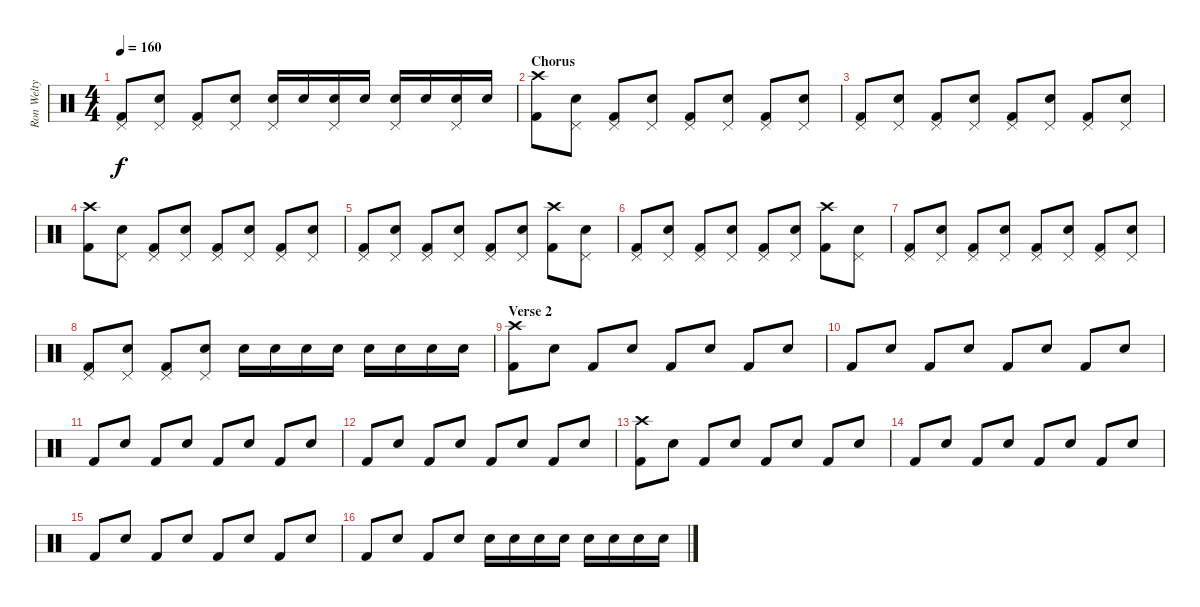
\track ("Ron Welty" "Ron Welty") {instrument percussion}
\staff {score}
\articulation defaults
\ts (4 4)
\tempo 160
\clef neutral
\ks c
("Pedal Hi-Hat (hit)" "Kick (hit) 2").8{dy f} ("Pedal Hi-Hat (hit)" "Snare (hit) 2").8 ("Pedal Hi-Hat (hit)" "Kick (hit) 2").8 ("Pedal Hi-Hat (hit)" "Snare (hit) 2").8 ("Pedal Hi-Hat (hit)" "Snare (hit) 2").16 "Snare (hit) 2".16 ("Pedal Hi-Hat (hit)" "Snare (hit) 2").16 "Snare (hit) 2".16 ("Pedal Hi-Hat (hit)" "Snare (hit) 2").16 "Snare (hit) 2".16 ("Pedal Hi-Hat (hit)" "Snare (hit) 2").16 "Snare (hit) 2".16 |
\section ("" "Chorus")
("Crash high (hit)" "Kick (hit) 2").8 ("Pedal Hi-Hat (hit)" "Snare (hit) 2").8 ("Pedal Hi-Hat (hit)" "Kick (hit) 2").8 ("Pedal Hi-Hat (hit)" "Snare (hit) 2").8 ("Pedal Hi-Hat (hit)" "Kick (hit) 2").8 ("Pedal Hi-Hat (hit)" "Snare (hit) 2").8 ("Pedal Hi-Hat (hit)" "Kick (hit) 2").8 ("Pedal Hi-Hat (hit)" "Snare (hit) 2").8 |
("Pedal Hi-Hat (hit)" "Kick (hit) 2").8 ("Pedal Hi-Hat (hit)" "Snare (hit) 2").8 ("Pedal Hi-Hat (hit)" "Kick (hit) 2").8 ("Pedal Hi-Hat (hit)" "Snare (hit) 2").8 ("Pedal Hi-Hat (hit)" "Kick (hit) 2").8 ("Pedal Hi-Hat (hit)" "Snare (hit) 2").8 ("Pedal Hi-Hat (hit)" "Kick (hit) 2").8 ("Pedal Hi-Hat (hit)" "Snare (hit) 2").8 |
("Crash high (hit)" "Kick (hit) 2").8 ("Pedal Hi-Hat (hit)" "Snare (hit) 2").8 ("Pedal Hi-Hat (hit)" "Kick (hit) 2").8 ("Pedal Hi-Hat (hit)" "Snare (hit) 2").8 ("Pedal Hi-Hat (hit)" "Kick (hit) 2").8 ("Pedal Hi-Hat (hit)" "Snare (hit) 2").8 ("Pedal Hi-Hat (hit)" "Kick (hit) 2").8 ("Pedal Hi-Hat (hit)" "Snare (hit) 2").8 |
("Pedal Hi-Hat (hit)" "Kick (hit) 2").8 ("Pedal Hi-Hat (hit)" "Snare (hit) 2").8 ("Pedal Hi-Hat (hit)" "Kick (hit) 2").8 ("Pedal Hi-Hat (hit)" "Snare (hit) 2").8 ("Pedal Hi-Hat (hit)" "Kick (hit) 2").8 ("Pedal Hi-Hat (hit)" "Snare (hit) 2").8 ("Crash high (hit)" "Kick (hit) 2").8 ("Pedal Hi-Hat (hit)" "Snare (hit) 2").8 |
("Pedal Hi-Hat (hit)" "Kick (hit) 2").8 ("Pedal Hi-Hat (hit)" "Snare (hit) 2").8 ("Pedal Hi-Hat (hit)" "Kick (hit) 2").8 ("Pedal Hi-Hat (hit)" "Snare (hit) 2").8 ("Pedal Hi-Hat (hit)" "Kick (hit) 2").8 ("Pedal Hi-Hat (hit)" "Snare (hit) 2").8 ("Crash high (hit)" "Kick (hit) 2").8 ("Pedal Hi-Hat (hit)" "Snare (hit) 2").8 |
("Pedal Hi-Hat (hit)" "Kick (hit) 2").8 ("Pedal Hi-Hat (hit)" "Snare (hit) 2").8 ("Pedal Hi-Hat (hit)" "Kick (hit) 2").8 ("Pedal Hi-Hat (hit)" "Snare (hit) 2").8 ("Pedal Hi-Hat (hit)" "Kick (hit) 2").8 ("Pedal Hi-Hat (hit)" "Snare (hit) 2").8 ("Pedal Hi-Hat (hit)" "Kick (hit) 2").8 ("Pedal Hi-Hat (hit)" "Snare (hit) 2").8 |
("Pedal Hi-Hat (hit)" "Kick (hit) 2").8 ("Pedal Hi-Hat (hit)" "Snare (hit) 2").8 ("Pedal Hi-Hat (hit)" "Kick (hit) 2").8 ("Pedal Hi-Hat (hit)" "Snare (hit) 2").8 "Snare (hit) 2".16 "Snare (hit) 2".16 "Snare (hit) 2".16 "Snare (hit) 2".16 "Snare (hit) 2".16 "Snare (hit) 2".16 "Snare (hit) 2".16 "Snare (hit) 2".16 |
\section ("" "Verse 2")
("Crash high (hit)" "Kick (hit) 2").8 "Snare (hit) 2".8 "Kick (hit) 2".8 "Snare (hit) 2".8 "Kick (hit) 2".8 "Snare (hit) 2".8 "Kick (hit) 2".8 "Snare (hit) 2".8 |
"Kick (hit) 2".8 "Snare (hit) 2".8 "Kick (hit) 2".8 "Snare (hit) 2".8 "Kick (hit) 2".8 "Snare (hit) 2".8 "Kick (hit) 2".8 "Snare (hit) 2".8 |
"Kick (hit) 2".8 "Snare (hit) 2".8 "Kick (hit) 2".8 "Snare (hit) 2".8 "Kick (hit) 2".8 "Snare (hit) 2".8 "Kick (hit) 2".8 "Snare (hit) 2".8 |
"Kick (hit) 2".8 "Snare (hit) 2".8 "Kick (hit) 2".8 "Snare (hit) 2".8 "Kick (hit) 2".8 "Snare (hit) 2".8 "Kick (hit) 2".8 "Snare (hit) 2".8 |
("Crash high (hit)" "Kick (hit) 2").8 "Snare (hit) 2".8 "Kick (hit) 2".8 "Snare (hit) 2".8 "Kick (hit) 2".8 "Snare (hit) 2".8 "Kick (hit) 2".8 "Snare (hit) 2".8 |
"Kick (hit) 2".8 "Snare (hit) 2".8 "Kick (hit) 2".8 "Snare (hit) 2".8 "Kick (hit) 2".8 "Snare (hit) 2".8 "Kick (hit) 2".8 "Snare (hit) 2".8 |
"Kick (hit) 2".8 "Snare (hit) 2".8 "Kick (hit) 2".8 "Snare (hit) 2".8 "Kick (hit) 2".8 "Snare (hit) 2".8 "Kick (hit) 2".8 "Snare (hit) 2".8 |
"Kick (hit) 2".8 "Snare (hit) 2".8 "Kick (hit) 2".8 "Snare (hit) 2".8 "Snare (hit) 2".16 "Snare (hit) 2".16 "Snare (hit) 2".16 "Snare (hit) 2".16 "Snare (hit) 2".16 "Snare (hit) 2".16 "Snare (hit) 2".16 "Snare (hit) 2".16
